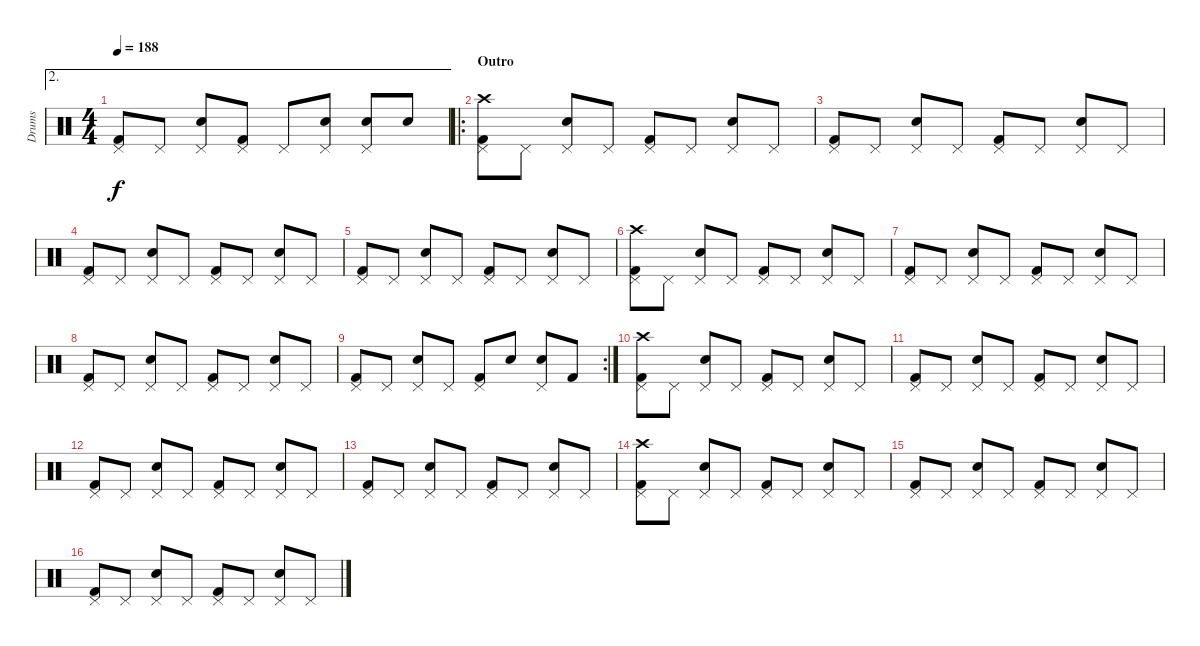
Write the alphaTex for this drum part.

\track ("Drums" "Drums") {instrument percussion}
\staff {score}
\articulation defaults
\ae 2
\ts (4 4)
\tempo 188
\clef neutral
\ks c
("Kick (hit) 2" "Pedal Hi-Hat (hit)").8{dy f} "Pedal Hi-Hat (hit)".8 ("Snare (hit) 2" "Pedal Hi-Hat (hit)").8 ("Kick (hit) 2" "Pedal Hi-Hat (hit)").8 "Pedal Hi-Hat (hit)".8 ("Snare (hit) 2" "Pedal Hi-Hat (hit)").8 ("Snare (hit) 2" "Pedal Hi-Hat (hit)").8 "Snare (hit) 2".8 |
\ro
\section ("" "Outro")
("Kick (hit) 2" "Pedal Hi-Hat (hit)" "Crash high (hit)").8 "Pedal Hi-Hat (hit)".8 ("Snare (hit) 2" "Pedal Hi-Hat (hit)").8 "Pedal Hi-Hat (hit)".8 ("Kick (hit) 2" "Pedal Hi-Hat (hit)").8 "Pedal Hi-Hat (hit)".8 ("Snare (hit) 2" "Pedal Hi-Hat (hit)").8 "Pedal Hi-Hat (hit)".8 |
("Kick (hit) 2" "Pedal Hi-Hat (hit)").8 "Pedal Hi-Hat (hit)".8 ("Snare (hit) 2" "Pedal Hi-Hat (hit)").8 "Pedal Hi-Hat (hit)".8 ("Kick (hit) 2" "Pedal Hi-Hat (hit)").8 "Pedal Hi-Hat (hit)".8 ("Snare (hit) 2" "Pedal Hi-Hat (hit)").8 "Pedal Hi-Hat (hit)".8 |
("Kick (hit) 2" "Pedal Hi-Hat (hit)").8 "Pedal Hi-Hat (hit)".8 ("Snare (hit) 2" "Pedal Hi-Hat (hit)").8 "Pedal Hi-Hat (hit)".8 ("Kick (hit) 2" "Pedal Hi-Hat (hit)").8 "Pedal Hi-Hat (hit)".8 ("Snare (hit) 2" "Pedal Hi-Hat (hit)").8 "Pedal Hi-Hat (hit)".8 |
("Kick (hit) 2" "Pedal Hi-Hat (hit)").8 "Pedal Hi-Hat (hit)".8 ("Snare (hit) 2" "Pedal Hi-Hat (hit)").8 "Pedal Hi-Hat (hit)".8 ("Kick (hit) 2" "Pedal Hi-Hat (hit)").8 "Pedal Hi-Hat (hit)".8 ("Snare (hit) 2" "Pedal Hi-Hat (hit)").8 "Pedal Hi-Hat (hit)".8 |
("Kick (hit) 2" "Pedal Hi-Hat (hit)" "Crash high (hit)").8 "Pedal Hi-Hat (hit)".8 ("Snare (hit) 2" "Pedal Hi-Hat (hit)").8 "Pedal Hi-Hat (hit)".8 ("Kick (hit) 2" "Pedal Hi-Hat (hit)").8 "Pedal Hi-Hat (hit)".8 ("Snare (hit) 2" "Pedal Hi-Hat (hit)").8 "Pedal Hi-Hat (hit)".8 |
("Kick (hit) 2" "Pedal Hi-Hat (hit)").8 "Pedal Hi-Hat (hit)".8 ("Snare (hit) 2" "Pedal Hi-Hat (hit)").8 "Pedal Hi-Hat (hit)".8 ("Kick (hit) 2" "Pedal Hi-Hat (hit)").8 "Pedal Hi-Hat (hit)".8 ("Snare (hit) 2" "Pedal Hi-Hat (hit)").8 "Pedal Hi-Hat (hit)".8 |
("Kick (hit) 2" "Pedal Hi-Hat (hit)").8 "Pedal Hi-Hat (hit)".8 ("Snare (hit) 2" "Pedal Hi-Hat (hit)").8 "Pedal Hi-Hat (hit)".8 ("Kick (hit) 2" "Pedal Hi-Hat (hit)").8 "Pedal Hi-Hat (hit)".8 ("Snare (hit) 2" "Pedal Hi-Hat (hit)").8 "Pedal Hi-Hat (hit)".8 |
\rc 2
("Kick (hit) 2" "Pedal Hi-Hat (hit)").8 "Pedal Hi-Hat (hit)".8 ("Snare (hit) 2" "Pedal Hi-Hat (hit)").8 "Pedal Hi-Hat (hit)".8 ("Kick (hit) 2" "Pedal Hi-Hat (hit)").8 "Snare (hit) 2".8 ("Snare (hit) 2" "Pedal Hi-Hat (hit)").8 "Kick (hit) 2".8 |
("Kick (hit) 2" "Pedal Hi-Hat (hit)" "Crash high (hit)").8{volume 12} "Pedal Hi-Hat (hit)".8 ("Snare (hit) 2" "Pedal Hi-Hat (hit)").8 "Pedal Hi-Hat (hit)".8 ("Kick (hit) 2" "Pedal Hi-Hat (hit)").8 "Pedal Hi-Hat (hit)".8 ("Snare (hit) 2" "Pedal Hi-Hat (hit)").8 "Pedal Hi-Hat (hit)".8 |
("Kick (hit) 2" "Pedal Hi-Hat (hit)").8 "Pedal Hi-Hat (hit)".8 ("Snare (hit) 2" "Pedal Hi-Hat (hit)").8 "Pedal Hi-Hat (hit)".8 ("Kick (hit) 2" "Pedal Hi-Hat (hit)").8 "Pedal Hi-Hat (hit)".8 ("Snare (hit) 2" "Pedal Hi-Hat (hit)").8 "Pedal Hi-Hat (hit)".8 |
("Kick (hit) 2" "Pedal Hi-Hat (hit)").8{volume 11} "Pedal Hi-Hat (hit)".8 ("Snare (hit) 2" "Pedal Hi-Hat (hit)").8 "Pedal Hi-Hat (hit)".8 ("Kick (hit) 2" "Pedal Hi-Hat (hit)").8 "Pedal Hi-Hat (hit)".8 ("Snare (hit) 2" "Pedal Hi-Hat (hit)").8 "Pedal Hi-Hat (hit)".8 |
("Kick (hit) 2" "Pedal Hi-Hat (hit)").8 "Pedal Hi-Hat (hit)".8 ("Snare (hit) 2" "Pedal Hi-Hat (hit)").8 "Pedal Hi-Hat (hit)".8 ("Kick (hit) 2" "Pedal Hi-Hat (hit)").8 "Pedal Hi-Hat (hit)".8 ("Snare (hit) 2" "Pedal Hi-Hat (hit)").8 "Pedal Hi-Hat (hit)".8 |
("Kick (hit) 2" "Pedal Hi-Hat (hit)" "Crash high (hit)").8{volume 10} "Pedal Hi-Hat (hit)".8 ("Snare (hit) 2" "Pedal Hi-Hat (hit)").8 "Pedal Hi-Hat (hit)".8 ("Kick (hit) 2" "Pedal Hi-Hat (hit)").8 "Pedal Hi-Hat (hit)".8 ("Snare (hit) 2" "Pedal Hi-Hat (hit)").8 "Pedal Hi-Hat (hit)".8 |
("Kick (hit) 2" "Pedal Hi-Hat (hit)").8 "Pedal Hi-Hat (hit)".8 ("Snare (hit) 2" "Pedal Hi-Hat (hit)").8 "Pedal Hi-Hat (hit)".8 ("Kick (hit) 2" "Pedal Hi-Hat (hit)").8 "Pedal Hi-Hat (hit)".8 ("Snare (hit) 2" "Pedal Hi-Hat (hit)").8 "Pedal Hi-Hat (hit)".8 |
("Kick (hit) 2" "Pedal Hi-Hat (hit)").8{volume 9} "Pedal Hi-Hat (hit)".8 ("Snare (hit) 2" "Pedal Hi-Hat (hit)").8 "Pedal Hi-Hat (hit)".8 ("Kick (hit) 2" "Pedal Hi-Hat (hit)").8 "Pedal Hi-Hat (hit)".8 ("Snare (hit) 2" "Pedal Hi-Hat (hit)").8 "Pedal Hi-Hat (hit)".8
